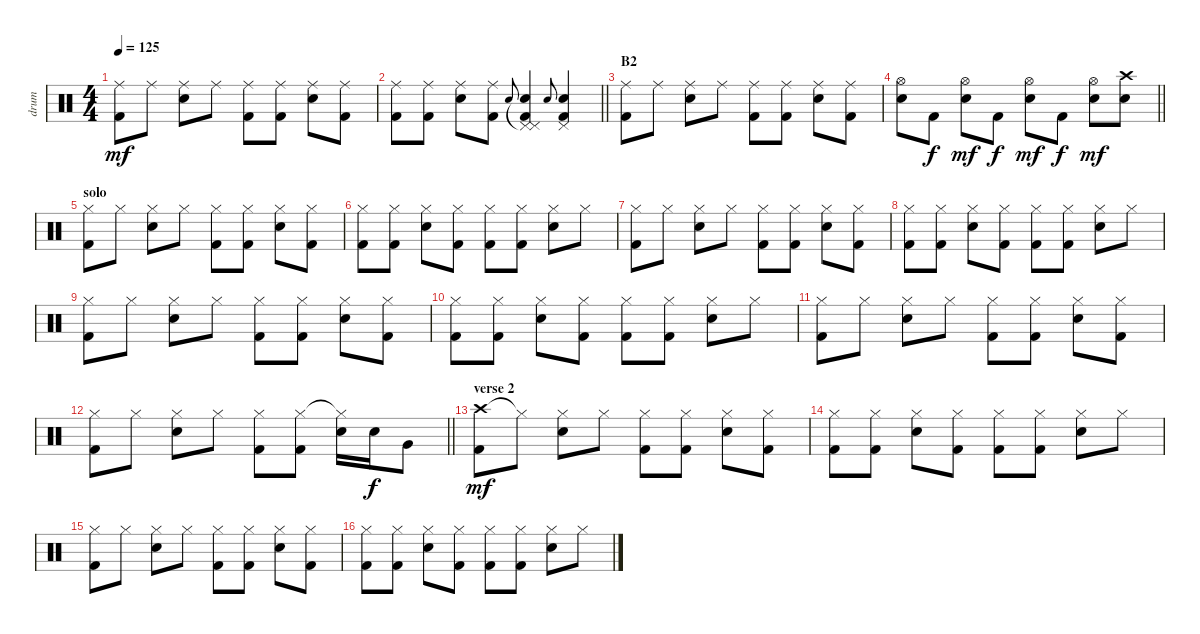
\track ("drum" "drum") {instrument percussion}
\staff {score}
\articulation defaults
\ts (4 4)
\tempo 125
\clef neutral
\ks c
("Ride (middle)" "Kick (hit) 2").8{dy mf} "Ride (middle)".8 ("Ride (middle)" "Electric Snare (hit)").8 "Ride (middle)".8 ("Ride (middle)" "Kick (hit) 2").8 ("Ride (middle)" "Kick (hit) 2").8 ("Ride (middle)" "Electric Snare (hit)").8 ("Ride (middle)" "Kick (hit) 2").8 |
\barLineRight lightlight
("Ride (middle)" "Kick (hit) 2").8 ("Ride (middle)" "Kick (hit) 2").8 ("Ride (middle)" "Electric Snare (hit)").8 ("Ride (middle)" "Kick (hit) 2").8 "Electric Snare (hit)".8{gr onbeat} ("Pedal Hi-Hat (hit)"{t} "Pedal Hi-Hat (hit)" "Electric Snare (hit)" "Kick (hit) 2").4 "Electric Snare (hit)".8{gr onbeat} ("Pedal Hi-Hat (hit)" "Electric Snare (hit)" "Kick (hit) 2").4 |
\section ("" "B2")
("Ride (middle)" "Kick (hit) 2").8 "Ride (middle)".8 ("Ride (middle)" "Electric Snare (hit)").8 "Ride (middle)".8 ("Ride (middle)" "Kick (hit) 2").8 ("Ride (middle)" "Kick (hit) 2").8 ("Ride (middle)" "Electric Snare (hit)").8 ("Ride (middle)" "Kick (hit) 2").8 |
\barLineRight lightlight
("Hi-Hat (open)" "Electric Snare (hit)").8 "Kick (hit) 2".8{dy f} ("Hi-Hat (open)" "Electric Snare (hit)").8{dy mf} "Kick (hit) 2".8{dy f} ("Hi-Hat (open)" "Electric Snare (hit)").8{dy mf} "Kick (hit) 2".8{dy f} ("Hi-Hat (open)" "Electric Snare (hit)").8{dy mf} ("Crash high (hit)" "Electric Snare (hit)").8 |
\section ("" "solo")
("Hi-Hat (closed)" "Kick (hit) 2").8 "Hi-Hat (closed)".8 ("Hi-Hat (closed)" "Electric Snare (hit)").8 "Hi-Hat (closed)".8 ("Hi-Hat (closed)" "Kick (hit) 2").8 ("Hi-Hat (closed)" "Kick (hit) 2").8 ("Hi-Hat (closed)" "Electric Snare (hit)").8 ("Hi-Hat (closed)" "Kick (hit) 2").8 |
("Hi-Hat (closed)" "Kick (hit) 2").8 ("Hi-Hat (closed)" "Kick (hit) 2").8 ("Hi-Hat (closed)" "Electric Snare (hit)").8 ("Hi-Hat (closed)" "Kick (hit) 2").8 ("Hi-Hat (closed)" "Kick (hit) 2").8 ("Hi-Hat (closed)" "Kick (hit) 2").8 ("Hi-Hat (closed)" "Electric Snare (hit)").8 "Hi-Hat (closed)".8 |
("Hi-Hat (closed)" "Kick (hit) 2").8 "Hi-Hat (closed)".8 ("Hi-Hat (closed)" "Electric Snare (hit)").8 "Hi-Hat (closed)".8 ("Hi-Hat (closed)" "Kick (hit) 2").8 ("Hi-Hat (closed)" "Kick (hit) 2").8 ("Hi-Hat (closed)" "Electric Snare (hit)").8 ("Hi-Hat (closed)" "Kick (hit) 2").8 |
("Hi-Hat (closed)" "Kick (hit) 2").8 ("Hi-Hat (closed)" "Kick (hit) 2").8 ("Hi-Hat (closed)" "Electric Snare (hit)").8 ("Hi-Hat (closed)" "Kick (hit) 2").8 ("Hi-Hat (closed)" "Kick (hit) 2").8 ("Hi-Hat (closed)" "Kick (hit) 2").8 ("Hi-Hat (closed)" "Electric Snare (hit)").8 "Hi-Hat (closed)".8 |
("Hi-Hat (closed)" "Kick (hit) 2").8 "Hi-Hat (closed)".8 ("Hi-Hat (closed)" "Electric Snare (hit)").8 "Hi-Hat (closed)".8 ("Hi-Hat (closed)" "Kick (hit) 2").8 ("Hi-Hat (closed)" "Kick (hit) 2").8 ("Hi-Hat (closed)" "Electric Snare (hit)").8 ("Hi-Hat (closed)" "Kick (hit) 2").8 |
("Hi-Hat (closed)" "Kick (hit) 2").8 ("Hi-Hat (closed)" "Kick (hit) 2").8 ("Hi-Hat (closed)" "Electric Snare (hit)").8 ("Hi-Hat (closed)" "Kick (hit) 2").8 ("Hi-Hat (closed)" "Kick (hit) 2").8 ("Hi-Hat (closed)" "Kick (hit) 2").8 ("Hi-Hat (closed)" "Electric Snare (hit)").8 "Hi-Hat (closed)".8 |
("Hi-Hat (closed)" "Kick (hit) 2").8 "Hi-Hat (closed)".8 ("Hi-Hat (closed)" "Electric Snare (hit)").8 "Hi-Hat (closed)".8 ("Hi-Hat (closed)" "Kick (hit) 2").8 ("Hi-Hat (closed)" "Kick (hit) 2").8 ("Hi-Hat (closed)" "Electric Snare (hit)").8 ("Hi-Hat (closed)" "Kick (hit) 2").8 |
\barLineRight lightlight
("Hi-Hat (closed)" "Kick (hit) 2").8 "Hi-Hat (closed)".8 ("Hi-Hat (closed)" "Electric Snare (hit)").8 "Hi-Hat (closed)".8 ("Hi-Hat (closed)" "Kick (hit) 2").8 ("Hi-Hat (closed)" "Kick (hit) 2").8 ("Hi-Hat (closed)"{t} "Electric Snare (hit)").16 "Electric Snare (hit)".16{dy f} "Very Low Tom (hit)".8 |
\section ("" "verse 2")
("Crash high (hit)" "Kick (hit) 2").8{dy mf} "Hi-Hat (closed)"{t}.8 ("Hi-Hat (closed)" "Electric Snare (hit)").8 "Hi-Hat (closed)".8 ("Hi-Hat (closed)" "Kick (hit) 2").8 ("Hi-Hat (closed)" "Kick (hit) 2").8 ("Hi-Hat (closed)" "Electric Snare (hit)").8 ("Hi-Hat (closed)" "Kick (hit) 2").8 |
("Hi-Hat (closed)" "Kick (hit) 2").8 ("Hi-Hat (closed)" "Kick (hit) 2").8 ("Hi-Hat (closed)" "Electric Snare (hit)").8 ("Hi-Hat (closed)" "Kick (hit) 2").8 ("Hi-Hat (closed)" "Kick (hit) 2").8 ("Hi-Hat (closed)" "Kick (hit) 2").8 ("Hi-Hat (closed)" "Electric Snare (hit)").8 "Hi-Hat (closed)".8 |
("Hi-Hat (closed)" "Kick (hit) 2").8 "Hi-Hat (closed)".8 ("Hi-Hat (closed)" "Electric Snare (hit)").8 "Hi-Hat (closed)".8 ("Hi-Hat (closed)" "Kick (hit) 2").8 ("Hi-Hat (closed)" "Kick (hit) 2").8 ("Hi-Hat (closed)" "Electric Snare (hit)").8 ("Hi-Hat (closed)" "Kick (hit) 2").8 |
("Hi-Hat (closed)" "Kick (hit) 2").8 ("Hi-Hat (closed)" "Kick (hit) 2").8 ("Hi-Hat (closed)" "Electric Snare (hit)").8 ("Hi-Hat (closed)" "Kick (hit) 2").8 ("Hi-Hat (closed)" "Kick (hit) 2").8 ("Hi-Hat (closed)" "Kick (hit) 2").8 ("Hi-Hat (closed)" "Electric Snare (hit)").8 "Hi-Hat (closed)".8
